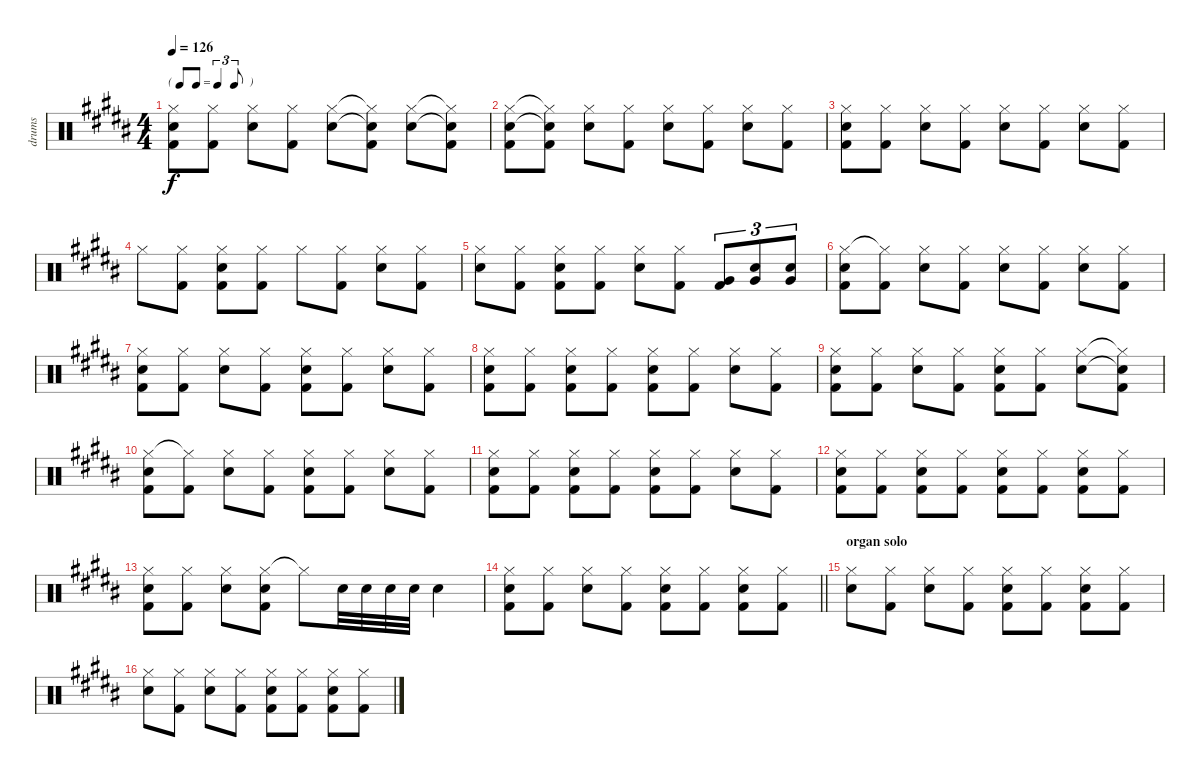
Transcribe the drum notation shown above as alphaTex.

\track ("drums" "drums") {instrument percussion}
\staff {score}
\articulation defaults
\ts (4 4)
\tf triplet8th
\tempo 126
\clef neutral
\ks b
("Hi-Hat (closed)" "Electric Snare (hit)" "Kick (hit) 2").8{dy f} ("Hi-Hat (closed)" "Kick (hit) 2").8 ("Hi-Hat (closed)" "Electric Snare (hit)").8 ("Hi-Hat (closed)" "Kick (hit) 2").8 ("Hi-Hat (closed)" "Electric Snare (hit)").8 ("Hi-Hat (closed)"{t} "Snare (hit)"{t} "Kick (hit) 2").8 ("Hi-Hat (closed)" "Electric Snare (hit)").8 ("Hi-Hat (closed)"{t} "Snare (hit)"{t} "Kick (hit) 2").8 |
("Hi-Hat (closed)" "Electric Snare (hit)" "Kick (hit) 2").8 ("Hi-Hat (closed)"{t} "Snare (hit)"{t} "Kick (hit) 2").8 ("Hi-Hat (closed)" "Electric Snare (hit)").8 ("Hi-Hat (closed)" "Kick (hit) 2").8 ("Hi-Hat (closed)" "Electric Snare (hit)").8 ("Hi-Hat (closed)" "Kick (hit) 2").8 ("Hi-Hat (closed)" "Electric Snare (hit)").8 ("Hi-Hat (closed)" "Kick (hit) 2").8 |
("Hi-Hat (closed)" "Electric Snare (hit)" "Kick (hit) 2").8 ("Hi-Hat (closed)" "Kick (hit) 2").8 ("Hi-Hat (closed)" "Electric Snare (hit)").8 ("Hi-Hat (closed)" "Kick (hit) 2").8 ("Hi-Hat (closed)" "Electric Snare (hit)").8 ("Hi-Hat (closed)" "Kick (hit) 2").8 ("Hi-Hat (closed)" "Electric Snare (hit)").8 ("Hi-Hat (closed)" "Kick (hit) 2").8 |
"Hi-Hat (closed)".8 ("Hi-Hat (closed)" "Kick (hit) 2").8 ("Hi-Hat (closed)" "Electric Snare (hit)" "Kick (hit) 2").8 ("Hi-Hat (closed)" "Kick (hit) 2").8 "Hi-Hat (closed)".8 ("Hi-Hat (closed)" "Kick (hit) 2").8 ("Hi-Hat (closed)" "Electric Snare (hit)").8 ("Hi-Hat (closed)" "Kick (hit) 2").8 |
("Hi-Hat (closed)" "Electric Snare (hit)").8 ("Hi-Hat (closed)" "Kick (hit) 2").8 ("Hi-Hat (closed)" "Electric Snare (hit)" "Kick (hit) 2").8 ("Hi-Hat (closed)" "Kick (hit) 2").8 ("Hi-Hat (closed)" "Electric Snare (hit)").8 ("Hi-Hat (closed)" "Kick (hit) 2").8 ("Very Low Tom (hit)" "Kick (hit) 2").8{tu (3 2)} ("Electric Snare (hit)" "Very Low Tom (hit)").8{tu (3 2)} ("Electric Snare (hit)" "Very Low Tom (hit)").8{tu (3 2)} |
("Hi-Hat (closed)" "Electric Snare (hit)" "Kick (hit) 2").8 ("Hi-Hat (closed)"{t} "Kick (hit) 2").8 ("Hi-Hat (closed)" "Electric Snare (hit)").8 ("Hi-Hat (closed)" "Kick (hit) 2").8 ("Hi-Hat (closed)" "Electric Snare (hit)").8 ("Hi-Hat (closed)" "Kick (hit) 2").8 ("Hi-Hat (closed)" "Electric Snare (hit)").8 ("Hi-Hat (closed)" "Kick (hit) 2").8 |
("Hi-Hat (closed)" "Electric Snare (hit)" "Kick (hit) 2").8 ("Hi-Hat (closed)" "Kick (hit) 2").8 ("Hi-Hat (closed)" "Electric Snare (hit)").8 ("Hi-Hat (closed)" "Kick (hit) 2").8 ("Hi-Hat (closed)" "Electric Snare (hit)" "Kick (hit) 2").8 ("Hi-Hat (closed)" "Kick (hit) 2").8 ("Hi-Hat (closed)" "Electric Snare (hit)").8 ("Hi-Hat (closed)" "Kick (hit) 2").8 |
("Hi-Hat (closed)" "Electric Snare (hit)" "Kick (hit) 2").8 ("Hi-Hat (closed)" "Kick (hit) 2").8 ("Hi-Hat (closed)" "Electric Snare (hit)" "Kick (hit) 2").8 ("Hi-Hat (closed)" "Kick (hit) 2").8 ("Hi-Hat (closed)" "Electric Snare (hit)" "Kick (hit) 2").8 ("Hi-Hat (closed)" "Kick (hit) 2").8 ("Hi-Hat (closed)" "Electric Snare (hit)").8 ("Hi-Hat (closed)" "Kick (hit) 2").8 |
("Hi-Hat (closed)" "Electric Snare (hit)" "Kick (hit) 2").8 ("Hi-Hat (closed)" "Kick (hit) 2").8 ("Hi-Hat (closed)" "Electric Snare (hit)").8 ("Hi-Hat (closed)" "Kick (hit) 2").8 ("Hi-Hat (closed)" "Electric Snare (hit)" "Kick (hit) 2").8 ("Hi-Hat (closed)" "Kick (hit) 2").8 ("Hi-Hat (closed)" "Electric Snare (hit)").8 ("Hi-Hat (closed)"{t} "Snare (hit)"{t} "Kick (hit) 2").8 |
("Hi-Hat (closed)" "Electric Snare (hit)" "Kick (hit) 2").8 ("Hi-Hat (closed)"{t} "Kick (hit) 2").8 ("Hi-Hat (closed)" "Electric Snare (hit)").8 ("Hi-Hat (closed)" "Kick (hit) 2").8 ("Hi-Hat (closed)" "Electric Snare (hit)" "Kick (hit) 2").8 ("Hi-Hat (closed)" "Kick (hit) 2").8 ("Hi-Hat (closed)" "Electric Snare (hit)").8 ("Hi-Hat (closed)" "Kick (hit) 2").8 |
("Hi-Hat (closed)" "Electric Snare (hit)" "Kick (hit) 2").8 ("Hi-Hat (closed)" "Kick (hit) 2").8 ("Hi-Hat (closed)" "Electric Snare (hit)" "Kick (hit) 2").8 ("Hi-Hat (closed)" "Kick (hit) 2").8 ("Hi-Hat (closed)" "Electric Snare (hit)" "Kick (hit) 2").8 ("Hi-Hat (closed)" "Kick (hit) 2").8 ("Hi-Hat (closed)" "Electric Snare (hit)").8 ("Hi-Hat (closed)" "Kick (hit) 2").8 |
("Hi-Hat (closed)" "Electric Snare (hit)" "Kick (hit) 2").8 ("Hi-Hat (closed)" "Kick (hit) 2").8 ("Hi-Hat (closed)" "Electric Snare (hit)" "Kick (hit) 2").8 ("Hi-Hat (closed)" "Kick (hit) 2").8 ("Hi-Hat (closed)" "Electric Snare (hit)" "Kick (hit) 2").8 ("Hi-Hat (closed)" "Kick (hit) 2").8 ("Hi-Hat (closed)" "Electric Snare (hit)" "Kick (hit) 2").8 ("Hi-Hat (closed)" "Kick (hit) 2").8 |
("Hi-Hat (closed)" "Electric Snare (hit)" "Kick (hit) 2").8 ("Hi-Hat (closed)" "Kick (hit) 2").8 ("Hi-Hat (closed)" "Electric Snare (hit)").8 ("Hi-Hat (closed)" "Electric Snare (hit)" "Kick (hit) 2").8 "Hi-Hat (closed)"{t}.8 "Electric Snare (hit)".32 "Electric Snare (hit)".32 "Electric Snare (hit)".32 "Electric Snare (hit)".32 "Electric Snare (hit)".4 |
\barLineRight lightlight
("Hi-Hat (closed)" "Electric Snare (hit)" "Kick (hit) 2").8{volume 8} ("Hi-Hat (closed)" "Kick (hit) 2").8 ("Hi-Hat (closed)" "Electric Snare (hit)").8 ("Hi-Hat (closed)" "Kick (hit) 2").8 ("Hi-Hat (closed)" "Electric Snare (hit)" "Kick (hit) 2").8 ("Hi-Hat (closed)" "Kick (hit) 2").8 ("Hi-Hat (closed)" "Electric Snare (hit)" "Kick (hit) 2").8 ("Hi-Hat (closed)" "Kick (hit) 2").8 |
\section ("" "organ solo")
("Hi-Hat (closed)" "Electric Snare (hit)").8 ("Hi-Hat (closed)" "Kick (hit) 2").8 ("Hi-Hat (closed)" "Electric Snare (hit)").8 ("Hi-Hat (closed)" "Kick (hit) 2").8 ("Hi-Hat (closed)" "Electric Snare (hit)" "Kick (hit) 2").8 ("Hi-Hat (closed)" "Kick (hit) 2").8 ("Hi-Hat (closed)" "Electric Snare (hit)" "Kick (hit) 2").8 ("Hi-Hat (closed)" "Kick (hit) 2").8 |
("Hi-Hat (closed)" "Electric Snare (hit)").8 ("Hi-Hat (closed)" "Kick (hit) 2").8 ("Hi-Hat (closed)" "Electric Snare (hit)").8 ("Hi-Hat (closed)" "Kick (hit) 2").8 ("Hi-Hat (closed)" "Electric Snare (hit)" "Kick (hit) 2").8 ("Hi-Hat (closed)" "Kick (hit) 2").8 ("Hi-Hat (closed)" "Electric Snare (hit)" "Kick (hit) 2").8 ("Hi-Hat (closed)" "Kick (hit) 2").8
